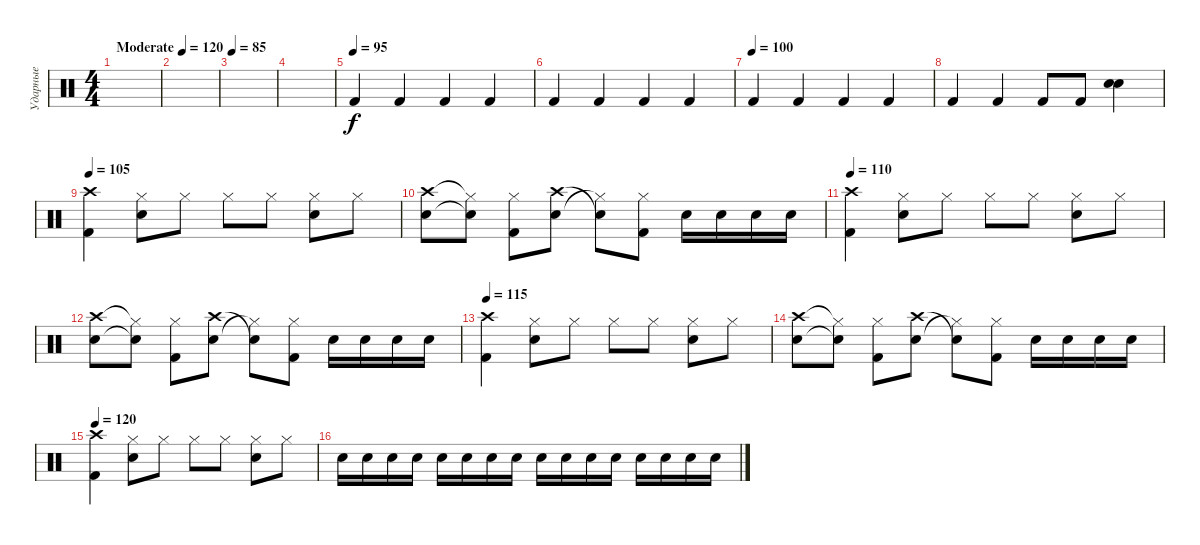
\track ("Ударные" "Ударные") {instrument percussion}
\staff {score}
\articulation defaults
\ts (4 4)
\tempo (120 "Moderate")
\tempo 80
\tempo (120 "Moderate")
\clef neutral
\ks c
|
|
\tempo 85
|
|
\tempo (95)
"Kick (hit) 2".4 "Kick (hit) 2".4 "Kick (hit) 2".4 "Kick (hit) 2".4 |
"Kick (hit) 2".4 "Kick (hit) 2".4 "Kick (hit) 2".4 "Kick (hit) 2".4 |
\tempo (100)
"Kick (hit) 2".4 "Kick (hit) 2".4 "Kick (hit) 2".4 "Kick (hit) 2".4 |
"Kick (hit) 2".4 "Kick (hit) 2".4 "Kick (hit) 2".8 "Kick (hit) 2".8 ("Snare (hit) 2" "Electric Snare (hit)").4 |
\tempo 105
("Crash high (hit)" "Kick (hit) 2").4 ("Hi-Hat (closed)" "Snare (hit) 2").8 "Hi-Hat (closed)".8 "Hi-Hat (closed)".8 "Hi-Hat (closed)".8 ("Hi-Hat (closed)" "Snare (hit) 2").8 "Hi-Hat (closed)".8 |
("Snare (hit) 2" "Crash high (hit)").8 ("Snare (hit)"{t} "Hi-Hat (closed)"{t}).8 ("Hi-Hat (closed)" "Kick (hit) 2").8 ("Crash high (hit)" "Snare (hit) 2").8 ("Snare (hit)"{t} "Hi-Hat (closed)"{t}).8 ("Hi-Hat (closed)" "Kick (hit) 2").8 "Snare (hit) 2".16 "Snare (hit) 2".16 "Snare (hit) 2".16 "Snare (hit) 2".16 |
\tempo 110
("Crash high (hit)" "Kick (hit) 2").4 ("Hi-Hat (closed)" "Snare (hit) 2").8 "Hi-Hat (closed)".8 "Hi-Hat (closed)".8 "Hi-Hat (closed)".8 ("Hi-Hat (closed)" "Snare (hit) 2").8 "Hi-Hat (closed)".8 |
("Snare (hit) 2" "Crash high (hit)").8 ("Snare (hit)"{t} "Hi-Hat (closed)"{t}).8 ("Hi-Hat (closed)" "Kick (hit) 2").8 ("Crash high (hit)" "Snare (hit) 2").8 ("Snare (hit)"{t} "Hi-Hat (closed)"{t}).8 ("Hi-Hat (closed)" "Kick (hit) 2").8 "Snare (hit) 2".16 "Snare (hit) 2".16 "Snare (hit) 2".16 "Snare (hit) 2".16 |
\tempo 115
("Crash high (hit)" "Kick (hit) 2").4 ("Hi-Hat (closed)" "Snare (hit) 2").8 "Hi-Hat (closed)".8 "Hi-Hat (closed)".8 "Hi-Hat (closed)".8 ("Hi-Hat (closed)" "Snare (hit) 2").8 "Hi-Hat (closed)".8 |
("Snare (hit) 2" "Crash high (hit)").8 ("Snare (hit)"{t} "Hi-Hat (closed)"{t}).8 ("Hi-Hat (closed)" "Kick (hit) 2").8 ("Crash high (hit)" "Snare (hit) 2").8 ("Snare (hit)"{t} "Hi-Hat (closed)"{t}).8 ("Hi-Hat (closed)" "Kick (hit) 2").8 "Snare (hit) 2".16 "Snare (hit) 2".16 "Snare (hit) 2".16 "Snare (hit) 2".16 |
\tempo 120
("Crash high (hit)" "Kick (hit) 2").4 ("Hi-Hat (closed)" "Snare (hit) 2").8 "Hi-Hat (closed)".8 "Hi-Hat (closed)".8 "Hi-Hat (closed)".8 ("Hi-Hat (closed)" "Snare (hit) 2").8 "Hi-Hat (closed)".8 |
"Snare (hit) 2".16 "Snare (hit) 2".16 "Snare (hit) 2".16 "Snare (hit) 2".16 "Snare (hit) 2".16 "Snare (hit) 2".16 "Snare (hit) 2".16 "Snare (hit) 2".16 "Snare (hit) 2".16 "Snare (hit) 2".16 "Snare (hit) 2".16 "Snare (hit) 2".16 "Snare (hit) 2".16 "Snare (hit) 2".16 "Snare (hit) 2".16 "Snare (hit) 2".16
